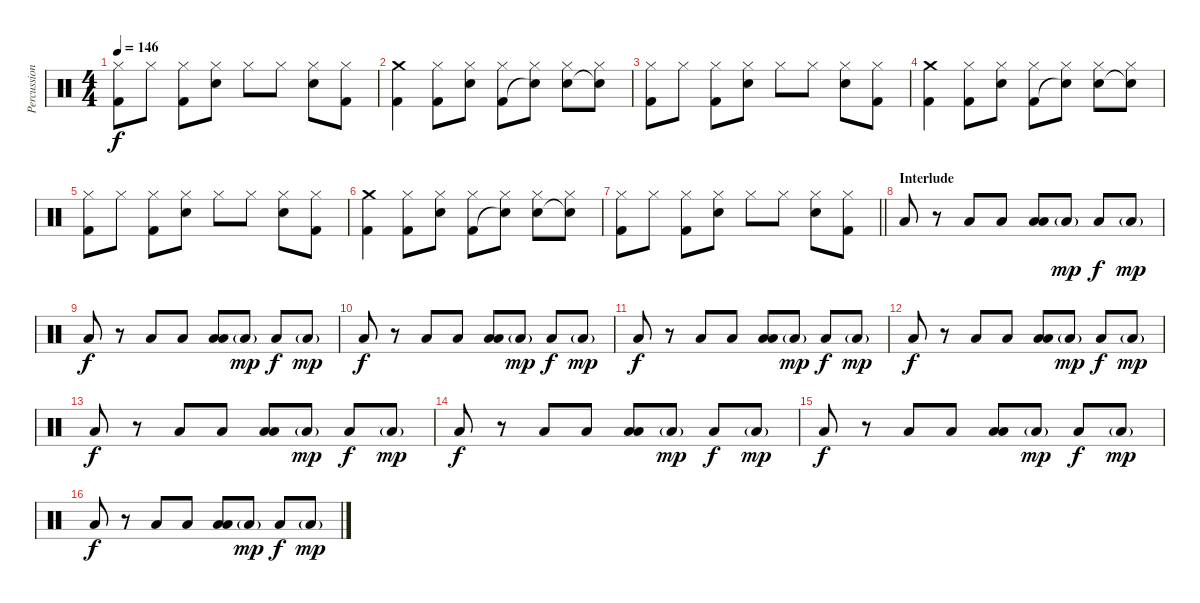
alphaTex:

\track ("Percussion" "Percussion") {instrument percussion}
\staff {score}
\articulation defaults
\ts (4 4)
\tempo 146
\clef neutral
\ks c
("Hi-Hat (closed)" "Kick (hit) 2").8{dy f} "Hi-Hat (closed)".8 ("Hi-Hat (closed)" "Kick (hit) 2").8 ("Hi-Hat (closed)" "Snare (hit) 2").8 "Hi-Hat (closed)".8 "Hi-Hat (closed)".8 ("Hi-Hat (closed)" "Snare (hit) 2").8 ("Hi-Hat (closed)" "Kick (hit) 2").8 |
("Crash medium (hit)" "Kick (hit) 2").4 ("Hi-Hat (closed)" "Kick (hit) 2").8 ("Hi-Hat (closed)" "Snare (hit) 2").8 ("Hi-Hat (closed)" "Kick (hit) 2").8 ("Hi-Hat (closed)" "Snare (hit)"{t}).8 ("Hi-Hat (closed)" "Snare (hit) 2").8 ("Hi-Hat (closed)" "Snare (hit)"{t}).8 |
("Hi-Hat (closed)" "Kick (hit) 2").8 "Hi-Hat (closed)".8 ("Hi-Hat (closed)" "Kick (hit) 2").8 ("Hi-Hat (closed)" "Snare (hit) 2").8 "Hi-Hat (closed)".8 "Hi-Hat (closed)".8 ("Hi-Hat (closed)" "Snare (hit) 2").8 ("Hi-Hat (closed)" "Kick (hit) 2").8 |
("Crash medium (hit)" "Kick (hit) 2").4 ("Hi-Hat (closed)" "Kick (hit) 2").8 ("Hi-Hat (closed)" "Snare (hit) 2").8 ("Hi-Hat (closed)" "Kick (hit) 2").8 ("Hi-Hat (closed)" "Snare (hit)"{t}).8 ("Hi-Hat (closed)" "Snare (hit) 2").8 ("Hi-Hat (closed)" "Snare (hit)"{t}).8 |
("Hi-Hat (closed)" "Kick (hit) 2").8 "Hi-Hat (closed)".8 ("Hi-Hat (closed)" "Kick (hit) 2").8 ("Hi-Hat (closed)" "Snare (hit) 2").8 "Hi-Hat (closed)".8 "Hi-Hat (closed)".8 ("Hi-Hat (closed)" "Snare (hit) 2").8 ("Hi-Hat (closed)" "Kick (hit) 2").8 |
("Crash medium (hit)" "Kick (hit) 2").4 ("Hi-Hat (closed)" "Kick (hit) 2").8 ("Hi-Hat (closed)" "Snare (hit) 2").8 ("Hi-Hat (closed)" "Kick (hit) 2").8 ("Hi-Hat (closed)" "Snare (hit)"{t}).8 ("Hi-Hat (closed)" "Snare (hit) 2").8 ("Hi-Hat (closed)" "Snare (hit)"{t}).8 |
\barLineRight lightlight
("Hi-Hat (closed)" "Kick (hit) 2").8 "Hi-Hat (closed)".8 ("Hi-Hat (closed)" "Kick (hit) 2").8 ("Hi-Hat (closed)" "Snare (hit) 2").8 "Hi-Hat (closed)".8 "Hi-Hat (closed)".8 ("Hi-Hat (closed)" "Snare (hit) 2").8 ("Hi-Hat (closed)" "Kick (hit) 2").8 |
\section ("" "Interlude")
"Low Tom (hit)".8 r.8 "Low Tom (hit)".8 "Low Tom (hit)".8 ("Low Tom (hit)" "Low Floor Tom (hit)").8 "Low Floor Tom (hit)"{g}.8{dy mp} "Low Floor Tom (hit)".8{dy f} "Low Tom (hit)"{g}.8{dy mp} |
"Low Tom (hit)".8{dy f} r.8 "Low Tom (hit)".8 "Low Tom (hit)".8 ("Low Tom (hit)" "Low Floor Tom (hit)").8 "Low Floor Tom (hit)"{g}.8{dy mp} "Low Floor Tom (hit)".8{dy f} "Low Tom (hit)"{g}.8{dy mp} |
"Low Tom (hit)".8{dy f} r.8 "Low Tom (hit)".8 "Low Tom (hit)".8 ("Low Tom (hit)" "Low Floor Tom (hit)").8 "Low Floor Tom (hit)"{g}.8{dy mp} "Low Floor Tom (hit)".8{dy f} "Low Tom (hit)"{g}.8{dy mp} |
"Low Tom (hit)".8{dy f} r.8 "Low Tom (hit)".8 "Low Tom (hit)".8 ("Low Tom (hit)" "Low Floor Tom (hit)").8 "Low Floor Tom (hit)"{g}.8{dy mp} "Low Floor Tom (hit)".8{dy f} "Low Tom (hit)"{g}.8{dy mp} |
"Low Tom (hit)".8{dy f} r.8 "Low Tom (hit)".8 "Low Tom (hit)".8 ("Low Tom (hit)" "Low Floor Tom (hit)").8 "Low Floor Tom (hit)"{g}.8{dy mp} "Low Floor Tom (hit)".8{dy f} "Low Tom (hit)"{g}.8{dy mp} |
"Low Tom (hit)".8{dy f} r.8 "Low Tom (hit)".8 "Low Tom (hit)".8 ("Low Tom (hit)" "Low Floor Tom (hit)").8 "Low Floor Tom (hit)"{g}.8{dy mp} "Low Floor Tom (hit)".8{dy f} "Low Tom (hit)"{g}.8{dy mp} |
"Low Tom (hit)".8{dy f} r.8 "Low Tom (hit)".8 "Low Tom (hit)".8 ("Low Tom (hit)" "Low Floor Tom (hit)").8 "Low Floor Tom (hit)"{g}.8{dy mp} "Low Floor Tom (hit)".8{dy f} "Low Tom (hit)"{g}.8{dy mp} |
"Low Tom (hit)".8{dy f} r.8 "Low Tom (hit)".8 "Low Tom (hit)".8 ("Low Tom (hit)" "Low Floor Tom (hit)").8 "Low Floor Tom (hit)"{g}.8{dy mp} "Low Floor Tom (hit)".8{dy f} "Low Tom (hit)"{g}.8{dy mp} |
"Low Tom (hit)".8{dy f} r.8 "Low Tom (hit)".8 "Low Tom (hit)".8 ("Low Tom (hit)" "Low Floor Tom (hit)").8 "Low Floor Tom (hit)"{g}.8{dy mp} "Low Floor Tom (hit)".8{dy f} "Low Tom (hit)"{g}.8{dy mp}
